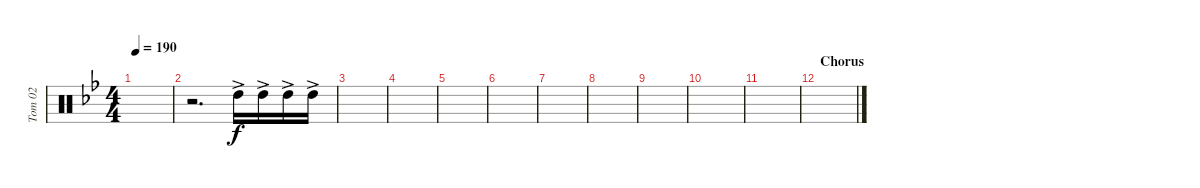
\track ("Tom 02" "Tom 02") {instrument percussion}
\staff {score}
\articulation defaults
\ts (4 4)
\tempo 190
\clef neutral
\ks bb
|
r.2{d} "High Tom (hit)"{ac}.16 "High Tom (hit)"{ac}.16 "High Tom (hit)"{ac}.16 "High Tom (hit)"{ac}.16 |
|
|
|
|
|
|
|
|
|
\section ("" "Chorus")
